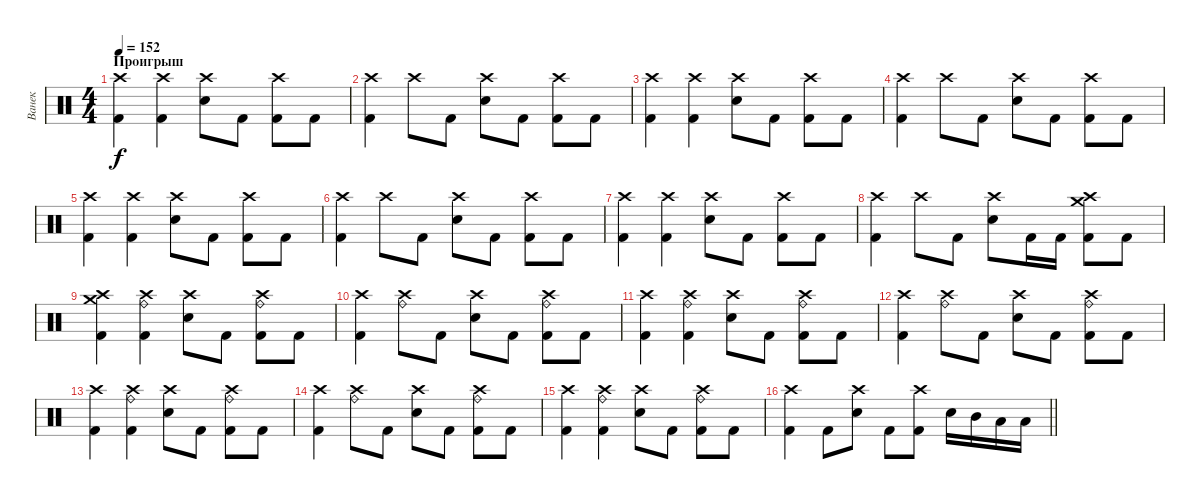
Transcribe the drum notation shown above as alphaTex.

\track ("Ванек" "Ванек") {instrument percussion}
\staff {score}
\articulation defaults
\ts (4 4)
\section ("" "Проигрыш")
\tempo 152
\clef neutral
\ks c
("Crash high (hit)" "Kick (hit) 2").4{dy f} ("Crash high (hit)" "Kick (hit) 2").4 ("Crash high (hit)" "Electric Snare (hit)").8 "Kick (hit) 2".8 ("Crash high (hit)" "Kick (hit) 2").8 "Kick (hit) 2".8 |
("Crash high (hit)" "Kick (hit) 2").4 "Crash high (hit)".8 "Kick (hit) 2".8 ("Crash high (hit)" "Electric Snare (hit)").8 "Kick (hit) 2".8 ("Crash high (hit)" "Kick (hit) 2").8 "Kick (hit) 2".8 |
("Crash high (hit)" "Kick (hit) 2").4 ("Crash high (hit)" "Kick (hit) 2").4 ("Crash high (hit)" "Electric Snare (hit)").8 "Kick (hit) 2".8 ("Crash high (hit)" "Kick (hit) 2").8 "Kick (hit) 2".8 |
("Crash high (hit)" "Kick (hit) 2").4 "Crash high (hit)".8 "Kick (hit) 2".8 ("Crash high (hit)" "Electric Snare (hit)").8 "Kick (hit) 2".8 ("Crash high (hit)" "Kick (hit) 2").8 "Kick (hit) 2".8 |
("Crash high (hit)" "Kick (hit) 2").4 ("Crash high (hit)" "Kick (hit) 2").4 ("Crash high (hit)" "Electric Snare (hit)").8 "Kick (hit) 2".8 ("Crash high (hit)" "Kick (hit) 2").8 "Kick (hit) 2".8 |
("Crash high (hit)" "Kick (hit) 2").4 "Crash high (hit)".8 "Kick (hit) 2".8 ("Crash high (hit)" "Electric Snare (hit)").8 "Kick (hit) 2".8 ("Crash high (hit)" "Kick (hit) 2").8 "Kick (hit) 2".8 |
("Crash high (hit)" "Kick (hit) 2").4 ("Crash high (hit)" "Kick (hit) 2").4 ("Crash high (hit)" "Electric Snare (hit)").8 "Kick (hit) 2".8 ("Crash high (hit)" "Kick (hit) 2").8 "Kick (hit) 2".8 |
("Crash high (hit)" "Kick (hit) 2").4 "Crash high (hit)".8 "Kick (hit) 2".8 ("Crash high (hit)" "Electric Snare (hit)").8 "Kick (hit) 2".16 "Kick (hit) 2".16 ("Crash high (hit)" "Crash medium (hit)" "Kick (hit) 2").8 "Kick (hit) 2".8 |
("Crash high (hit)" "Crash medium (hit)" "Kick (hit) 2").4 ("Ride (bell)" "Crash high (hit)" "Kick (hit) 2").4 ("Crash high (hit)" "Electric Snare (hit)").8 "Kick (hit) 2".8 ("Ride (bell)" "Crash high (hit)" "Kick (hit) 2").8 "Kick (hit) 2".8 |
("Crash high (hit)" "Kick (hit) 2").4 ("Ride (bell)" "Crash high (hit)").8 "Kick (hit) 2".8 ("Crash high (hit)" "Electric Snare (hit)").8 "Kick (hit) 2".8 ("Ride (bell)" "Crash high (hit)" "Kick (hit) 2").8 "Kick (hit) 2".8 |
("Crash high (hit)" "Kick (hit) 2").4 ("Ride (bell)" "Crash high (hit)" "Kick (hit) 2").4 ("Crash high (hit)" "Electric Snare (hit)").8 "Kick (hit) 2".8 ("Ride (bell)" "Crash high (hit)" "Kick (hit) 2").8 "Kick (hit) 2".8 |
("Crash high (hit)" "Kick (hit) 2").4 ("Ride (bell)" "Crash high (hit)").8 "Kick (hit) 2".8 ("Crash high (hit)" "Electric Snare (hit)").8 "Kick (hit) 2".8 ("Ride (bell)" "Crash high (hit)" "Kick (hit) 2").8 "Kick (hit) 2".8 |
("Crash high (hit)" "Kick (hit) 2").4 ("Ride (bell)" "Crash high (hit)" "Kick (hit) 2").4 ("Crash high (hit)" "Electric Snare (hit)").8 "Kick (hit) 2".8 ("Ride (bell)" "Crash high (hit)" "Kick (hit) 2").8 "Kick (hit) 2".8 |
("Crash high (hit)" "Kick (hit) 2").4 ("Ride (bell)" "Crash high (hit)").8 "Kick (hit) 2".8 ("Crash high (hit)" "Electric Snare (hit)").8 "Kick (hit) 2".8 ("Ride (bell)" "Crash high (hit)" "Kick (hit) 2").8 "Kick (hit) 2".8 |
("Crash high (hit)" "Kick (hit) 2").4 ("Ride (bell)" "Crash high (hit)" "Kick (hit) 2").4 ("Crash high (hit)" "Electric Snare (hit)").8 "Kick (hit) 2".8 ("Ride (bell)" "Crash high (hit)" "Kick (hit) 2").8 "Kick (hit) 2".8 |
\barLineRight lightlight
("Crash high (hit)" "Kick (hit) 2").4 "Kick (hit) 2".8 ("Crash high (hit)" "Electric Snare (hit)").8 "Kick (hit) 2".8 ("Crash high (hit)" "Kick (hit) 2").8 "Electric Snare (hit)".16 "Mid Tom (hit)".16 "Low Tom (hit)".16 "Low Floor Tom (hit)".16
